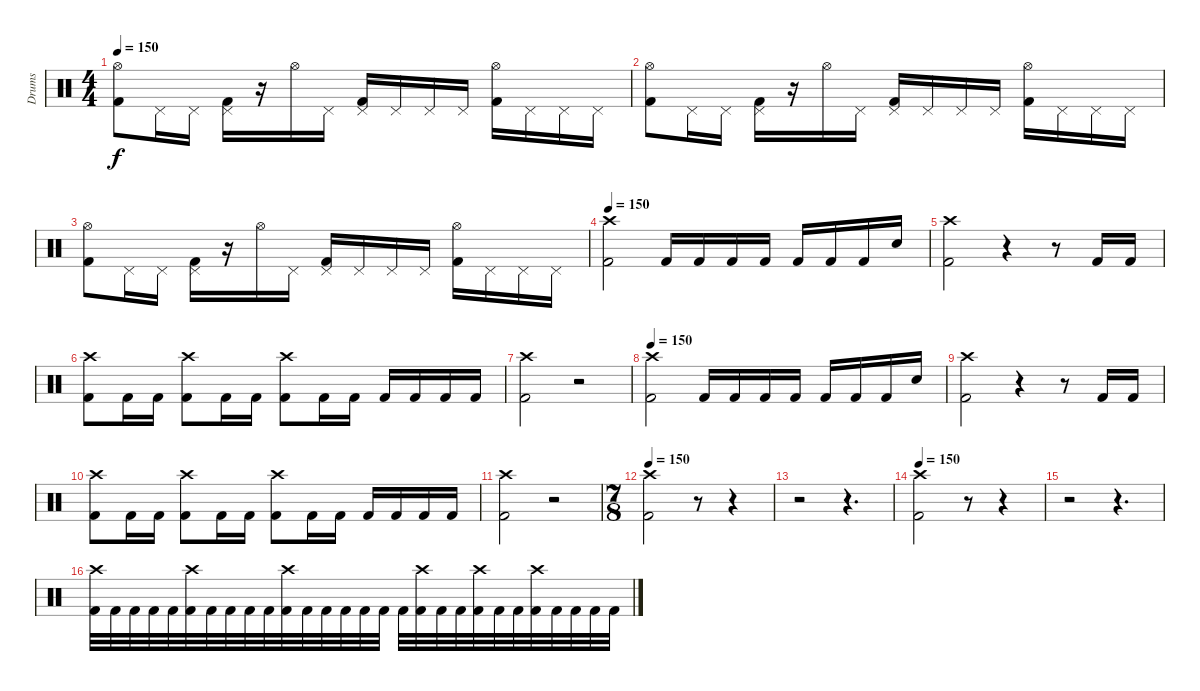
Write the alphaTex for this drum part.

\track ("Drums" "Drums") {instrument percussion}
\staff {score}
\articulation defaults
\ts (4 4)
\tempo 150
\clef neutral
\ks c
("Hi-Hat (open)" "Kick (hit) 2").8{dy f} "Pedal Hi-Hat (hit)".16 "Pedal Hi-Hat (hit)".16 ("Pedal Hi-Hat (hit)" "Kick (hit) 2").16 r.16 "Hi-Hat (open)".16 "Pedal Hi-Hat (hit)".16 ("Pedal Hi-Hat (hit)" "Kick (hit) 2").16 "Pedal Hi-Hat (hit)".16 "Pedal Hi-Hat (hit)".16 "Pedal Hi-Hat (hit)".16 ("Hi-Hat (open)" "Kick (hit) 2").16 "Pedal Hi-Hat (hit)".16 "Pedal Hi-Hat (hit)".16 "Pedal Hi-Hat (hit)".16 |
("Hi-Hat (open)" "Kick (hit) 2").8 "Pedal Hi-Hat (hit)".16 "Pedal Hi-Hat (hit)".16 ("Pedal Hi-Hat (hit)" "Kick (hit) 2").16 r.16 "Hi-Hat (open)".16 "Pedal Hi-Hat (hit)".16 ("Pedal Hi-Hat (hit)" "Kick (hit) 2").16 "Pedal Hi-Hat (hit)".16 "Pedal Hi-Hat (hit)".16 "Pedal Hi-Hat (hit)".16 ("Hi-Hat (open)" "Kick (hit) 2").16 "Pedal Hi-Hat (hit)".16 "Pedal Hi-Hat (hit)".16 "Pedal Hi-Hat (hit)".16 |
("Hi-Hat (open)" "Kick (hit) 2").8 "Pedal Hi-Hat (hit)".16 "Pedal Hi-Hat (hit)".16 ("Pedal Hi-Hat (hit)" "Kick (hit) 2").16 r.16 "Hi-Hat (open)".16 "Pedal Hi-Hat (hit)".16 ("Pedal Hi-Hat (hit)" "Kick (hit) 2").16 "Pedal Hi-Hat (hit)".16 "Pedal Hi-Hat (hit)".16 "Pedal Hi-Hat (hit)".16 ("Hi-Hat (open)" "Kick (hit) 2").16 "Pedal Hi-Hat (hit)".16 "Pedal Hi-Hat (hit)".16 "Pedal Hi-Hat (hit)".16 |
\tempo 150
("Crash high (hit)" "Kick (hit) 2").2 "Kick (hit) 2".16 "Kick (hit) 2".16 "Kick (hit) 2".16 "Kick (hit) 2".16 "Kick (hit) 2".16 "Kick (hit) 2".16 "Kick (hit) 2".16 "Snare (hit)".16 |
("Crash high (hit)" "Kick (hit) 2").2 r.4 r.8 "Kick (hit) 2".16 "Kick (hit) 2".16 |
("Crash high (hit)" "Kick (hit) 2").8 "Kick (hit) 2".16 "Kick (hit) 2".16 ("Crash high (hit)" "Kick (hit) 2").8 "Kick (hit) 2".16 "Kick (hit) 2".16 ("Crash high (hit)" "Kick (hit) 2").8 "Kick (hit) 2".16 "Kick (hit) 2".16 "Kick (hit) 2".16 "Kick (hit) 2".16 "Kick (hit) 2".16 "Kick (hit) 2".16 |
("Crash high (hit)" "Kick (hit) 2").2 r.2 |
\tempo 150
("Crash high (hit)" "Kick (hit) 2").2 "Kick (hit) 2".16 "Kick (hit) 2".16 "Kick (hit) 2".16 "Kick (hit) 2".16 "Kick (hit) 2".16 "Kick (hit) 2".16 "Kick (hit) 2".16 "Snare (hit)".16 |
("Crash high (hit)" "Kick (hit) 2").2 r.4 r.8 "Kick (hit) 2".16 "Kick (hit) 2".16 |
("Crash high (hit)" "Kick (hit) 2").8 "Kick (hit) 2".16 "Kick (hit) 2".16 ("Crash high (hit)" "Kick (hit) 2").8 "Kick (hit) 2".16 "Kick (hit) 2".16 ("Crash high (hit)" "Kick (hit) 2").8 "Kick (hit) 2".16 "Kick (hit) 2".16 "Kick (hit) 2".16 "Kick (hit) 2".16 "Kick (hit) 2".16 "Kick (hit) 2".16 |
("Crash high (hit)" "Kick (hit) 2").2 r.2 |
\ts (7 8)
\tempo 150
("Crash high (hit)" "Kick (hit) 2").2 r.8 r.4 |
r.2 r.4{d} |
\tempo 150
("Crash high (hit)" "Kick (hit) 2").2 r.8 r.4 |
r.2 r.4{d} |
("Crash high (hit)" "Kick (hit) 2").32 "Kick (hit) 2".32 "Kick (hit) 2".32 "Kick (hit) 2".32 "Kick (hit) 2".32 ("Crash high (hit)" "Kick (hit) 2").32 "Kick (hit) 2".32 "Kick (hit) 2".32 "Kick (hit) 2".32 "Kick (hit) 2".32 ("Crash high (hit)" "Kick (hit) 2").32 "Kick (hit) 2".32 "Kick (hit) 2".32 "Kick (hit) 2".32 "Kick (hit) 2".32 "Kick (hit) 2".32 "Kick (hit) 2".32 ("Crash high (hit)" "Kick (hit) 2").32 "Kick (hit) 2".32 "Kick (hit) 2".32 ("Crash high (hit)" "Kick (hit) 2").32 "Kick (hit) 2".32 "Kick (hit) 2".32 ("Crash high (hit)" "Kick (hit) 2").32 "Kick (hit) 2".32 "Kick (hit) 2".32 "Kick (hit) 2".32 "Kick (hit) 2".32
